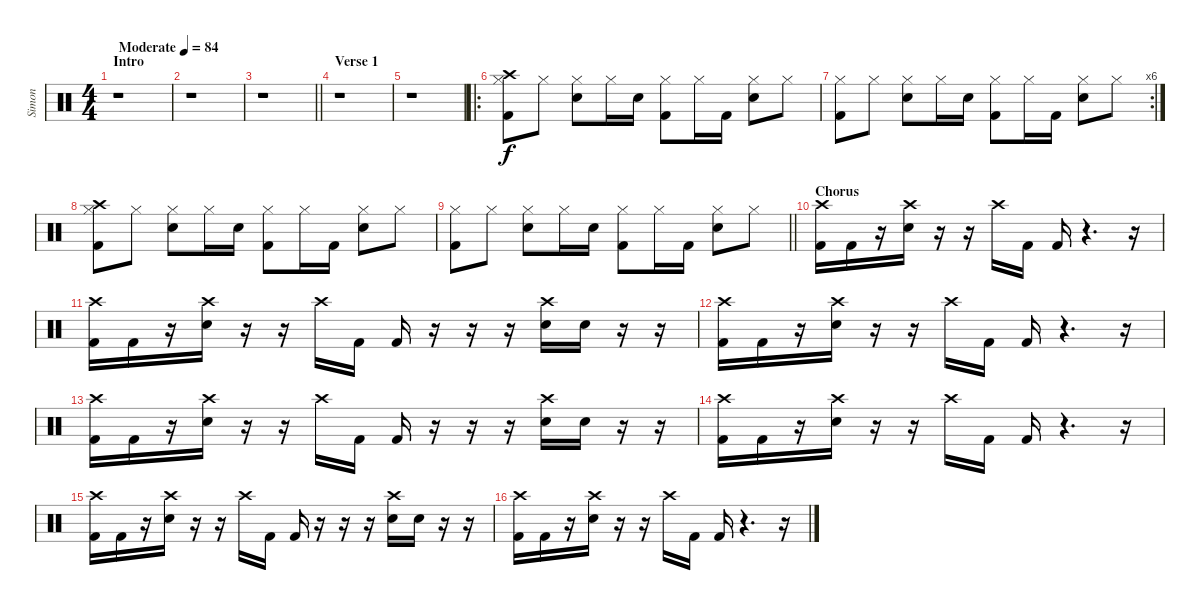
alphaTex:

\track ("Simon" "Simon") {instrument percussion}
\staff {score}
\articulation defaults
\ts (4 4)
\section ("" "Intro")
\tempo (84 "Moderate")
\clef neutral
\ks c
r.1{dy f} |
r.1 |
\barLineRight lightlight
r.1 |
\section ("" "Verse 1")
r.1 |
r.1 |
\ro
("Crash high (hit)" "Hi-Hat (closed)" "Kick (hit) 2").8 "Hi-Hat (closed)".8 ("Hi-Hat (closed)" "Snare (hit) 2").8 "Hi-Hat (closed)".16 "Snare (hit) 2".16 ("Hi-Hat (closed)" "Kick (hit) 2").8 "Hi-Hat (closed)".16 "Kick (hit) 2".16 ("Hi-Hat (closed)" "Snare (hit) 2").8 "Hi-Hat (closed)".8 |
\rc 6
("Hi-Hat (closed)" "Kick (hit) 2").8 "Hi-Hat (closed)".8 ("Hi-Hat (closed)" "Snare (hit) 2").8 "Hi-Hat (closed)".16 "Snare (hit) 2".16 ("Hi-Hat (closed)" "Kick (hit) 2").8 "Hi-Hat (closed)".16 "Kick (hit) 2".16 ("Hi-Hat (closed)" "Snare (hit) 2").8 "Hi-Hat (closed)".8 |
("Crash high (hit)" "Hi-Hat (closed)" "Kick (hit) 2").8 "Hi-Hat (closed)".8 ("Hi-Hat (closed)" "Snare (hit) 2").8 "Hi-Hat (closed)".16 "Snare (hit) 2".16 ("Hi-Hat (closed)" "Kick (hit) 2").8 "Hi-Hat (closed)".16 "Kick (hit) 2".16 ("Hi-Hat (closed)" "Snare (hit) 2").8 "Hi-Hat (closed)".8 |
\barLineRight lightlight
("Hi-Hat (closed)" "Kick (hit) 2").8 "Hi-Hat (closed)".8 ("Hi-Hat (closed)" "Snare (hit) 2").8 "Hi-Hat (closed)".16 "Snare (hit) 2".16 ("Hi-Hat (closed)" "Kick (hit) 2").8 "Hi-Hat (closed)".16 "Kick (hit) 2".16 ("Hi-Hat (closed)" "Snare (hit) 2").8 "Hi-Hat (closed)".8 |
\section ("" "Chorus")
("Kick (hit) 2" "Crash high (hit)").16 "Kick (hit) 2".16 r.16 ("Snare (hit) 2" "Crash high (hit)").16 r.16 r.16 "Crash high (hit)".16 "Kick (hit) 2".16 "Kick (hit) 2".16 r.4{d} r.16 |
("Kick (hit) 2" "Crash high (hit)").16 "Kick (hit) 2".16 r.16 ("Snare (hit) 2" "Crash high (hit)").16 r.16 r.16 "Crash high (hit)".16 "Kick (hit) 2".16 "Kick (hit) 2".16 r.16 r.16 r.16 ("Snare (hit) 2" "Crash high (hit)").16 "Snare (hit) 2".16 r.16 r.16 |
("Kick (hit) 2" "Crash high (hit)").16 "Kick (hit) 2".16 r.16 ("Snare (hit) 2" "Crash high (hit)").16 r.16 r.16 "Crash high (hit)".16 "Kick (hit) 2".16 "Kick (hit) 2".16 r.4{d} r.16 |
("Kick (hit) 2" "Crash high (hit)").16 "Kick (hit) 2".16 r.16 ("Snare (hit) 2" "Crash high (hit)").16 r.16 r.16 "Crash high (hit)".16 "Kick (hit) 2".16 "Kick (hit) 2".16 r.16 r.16 r.16 ("Snare (hit) 2" "Crash high (hit)").16 "Snare (hit) 2".16 r.16 r.16 |
("Kick (hit) 2" "Crash high (hit)").16 "Kick (hit) 2".16 r.16 ("Snare (hit) 2" "Crash high (hit)").16 r.16 r.16 "Crash high (hit)".16 "Kick (hit) 2".16 "Kick (hit) 2".16 r.4{d} r.16 |
("Kick (hit) 2" "Crash high (hit)").16 "Kick (hit) 2".16 r.16 ("Snare (hit) 2" "Crash high (hit)").16 r.16 r.16 "Crash high (hit)".16 "Kick (hit) 2".16 "Kick (hit) 2".16 r.16 r.16 r.16 ("Snare (hit) 2" "Crash high (hit)").16 "Snare (hit) 2".16 r.16 r.16 |
("Kick (hit) 2" "Crash high (hit)").16 "Kick (hit) 2".16 r.16 ("Snare (hit) 2" "Crash high (hit)").16 r.16 r.16 "Crash high (hit)".16 "Kick (hit) 2".16 "Kick (hit) 2".16 r.4{d} r.16
